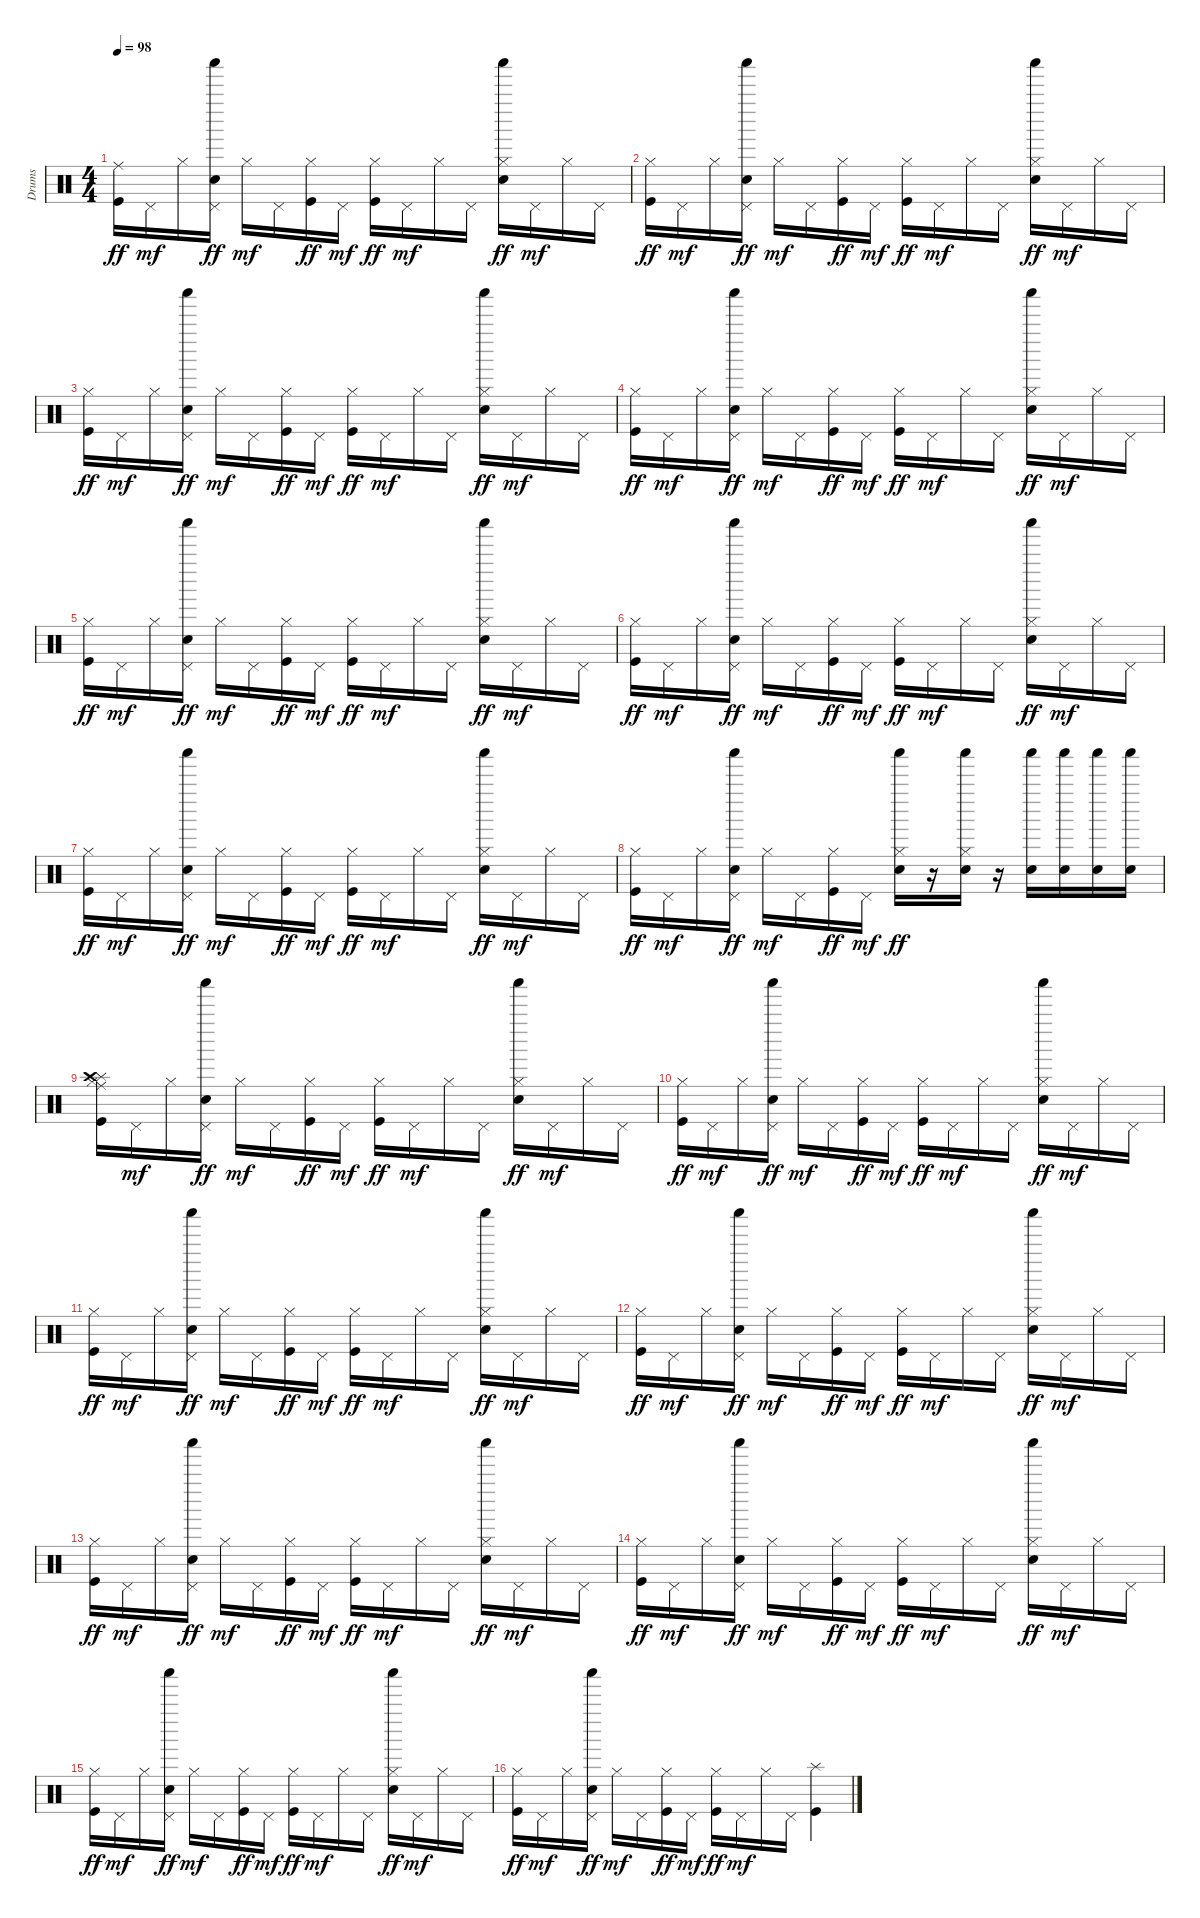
\track ("Drums" "Drums") {instrument percussion}
\staff {score}
\articulation defaults
\ts (4 4)
\tempo 98
\clef neutral
\ks c
("Kick (hit)" "Ride (middle)").16{dy ff} "Pedal Hi-Hat (hit)".16{dy mf} "Hi-Hat (closed)".16 ("Pedal Hi-Hat (hit)" "Shaker (hit)" "Electric Snare (hit)").16{dy ff} "Hi-Hat (closed)".16{dy mf} "Pedal Hi-Hat (hit)".16 ("Hi-Hat (closed)" "Kick (hit)").16{dy ff} "Pedal Hi-Hat (hit)".16{dy mf} ("Hi-Hat (closed)" "Kick (hit)").16{dy ff} "Pedal Hi-Hat (hit)".16{dy mf} "Hi-Hat (closed)".16 "Pedal Hi-Hat (hit)".16 ("Hi-Hat (closed)" "Shaker (hit)" "Electric Snare (hit)").16{dy ff} "Pedal Hi-Hat (hit)".16{dy mf} "Hi-Hat (closed)".16 "Pedal Hi-Hat (hit)".16 |
("Hi-Hat (closed)" "Kick (hit)").16{dy ff} "Pedal Hi-Hat (hit)".16{dy mf} "Hi-Hat (closed)".16 ("Pedal Hi-Hat (hit)" "Shaker (hit)" "Electric Snare (hit)").16{dy ff} "Hi-Hat (closed)".16{dy mf} "Pedal Hi-Hat (hit)".16 ("Hi-Hat (closed)" "Kick (hit)").16{dy ff} "Pedal Hi-Hat (hit)".16{dy mf} ("Hi-Hat (closed)" "Kick (hit)").16{dy ff} "Pedal Hi-Hat (hit)".16{dy mf} "Hi-Hat (closed)".16 "Pedal Hi-Hat (hit)".16 ("Hi-Hat (closed)" "Shaker (hit)" "Electric Snare (hit)").16{dy ff} "Pedal Hi-Hat (hit)".16{dy mf} "Hi-Hat (closed)".16 "Pedal Hi-Hat (hit)".16 |
("Hi-Hat (closed)" "Kick (hit)").16{dy ff} "Pedal Hi-Hat (hit)".16{dy mf} "Hi-Hat (closed)".16 ("Pedal Hi-Hat (hit)" "Shaker (hit)" "Electric Snare (hit)").16{dy ff} "Hi-Hat (closed)".16{dy mf} "Pedal Hi-Hat (hit)".16 ("Hi-Hat (closed)" "Kick (hit)").16{dy ff} "Pedal Hi-Hat (hit)".16{dy mf} ("Hi-Hat (closed)" "Kick (hit)").16{dy ff} "Pedal Hi-Hat (hit)".16{dy mf} "Hi-Hat (closed)".16 "Pedal Hi-Hat (hit)".16 ("Hi-Hat (closed)" "Shaker (hit)" "Electric Snare (hit)").16{dy ff} "Pedal Hi-Hat (hit)".16{dy mf} "Hi-Hat (closed)".16 "Pedal Hi-Hat (hit)".16 |
("Hi-Hat (closed)" "Kick (hit)").16{dy ff} "Pedal Hi-Hat (hit)".16{dy mf} "Hi-Hat (closed)".16 ("Pedal Hi-Hat (hit)" "Shaker (hit)" "Electric Snare (hit)").16{dy ff} "Hi-Hat (closed)".16{dy mf} "Pedal Hi-Hat (hit)".16 ("Hi-Hat (closed)" "Kick (hit)").16{dy ff} "Pedal Hi-Hat (hit)".16{dy mf} ("Hi-Hat (closed)" "Kick (hit)").16{dy ff} "Pedal Hi-Hat (hit)".16{dy mf} "Hi-Hat (closed)".16 "Pedal Hi-Hat (hit)".16 ("Hi-Hat (closed)" "Shaker (hit)" "Electric Snare (hit)").16{dy ff} "Pedal Hi-Hat (hit)".16{dy mf} "Hi-Hat (closed)".16 "Pedal Hi-Hat (hit)".16 |
("Hi-Hat (closed)" "Kick (hit)").16{dy ff} "Pedal Hi-Hat (hit)".16{dy mf} "Hi-Hat (closed)".16 ("Pedal Hi-Hat (hit)" "Shaker (hit)" "Electric Snare (hit)").16{dy ff} "Hi-Hat (closed)".16{dy mf} "Pedal Hi-Hat (hit)".16 ("Hi-Hat (closed)" "Kick (hit)").16{dy ff} "Pedal Hi-Hat (hit)".16{dy mf} ("Hi-Hat (closed)" "Kick (hit)").16{dy ff} "Pedal Hi-Hat (hit)".16{dy mf} "Hi-Hat (closed)".16 "Pedal Hi-Hat (hit)".16 ("Hi-Hat (closed)" "Shaker (hit)" "Electric Snare (hit)").16{dy ff} "Pedal Hi-Hat (hit)".16{dy mf} "Hi-Hat (closed)".16 "Pedal Hi-Hat (hit)".16 |
("Hi-Hat (closed)" "Kick (hit)").16{dy ff} "Pedal Hi-Hat (hit)".16{dy mf} "Hi-Hat (closed)".16 ("Pedal Hi-Hat (hit)" "Shaker (hit)" "Electric Snare (hit)").16{dy ff} "Hi-Hat (closed)".16{dy mf} "Pedal Hi-Hat (hit)".16 ("Hi-Hat (closed)" "Kick (hit)").16{dy ff} "Pedal Hi-Hat (hit)".16{dy mf} ("Hi-Hat (closed)" "Kick (hit)").16{dy ff} "Pedal Hi-Hat (hit)".16{dy mf} "Hi-Hat (closed)".16 "Pedal Hi-Hat (hit)".16 ("Hi-Hat (closed)" "Shaker (hit)" "Electric Snare (hit)").16{dy ff} "Pedal Hi-Hat (hit)".16{dy mf} "Hi-Hat (closed)".16 "Pedal Hi-Hat (hit)".16 |
("Hi-Hat (closed)" "Kick (hit)").16{dy ff} "Pedal Hi-Hat (hit)".16{dy mf} "Hi-Hat (closed)".16 ("Pedal Hi-Hat (hit)" "Shaker (hit)" "Electric Snare (hit)").16{dy ff} "Hi-Hat (closed)".16{dy mf} "Pedal Hi-Hat (hit)".16 ("Hi-Hat (closed)" "Kick (hit)").16{dy ff} "Pedal Hi-Hat (hit)".16{dy mf} ("Hi-Hat (closed)" "Kick (hit)").16{dy ff} "Pedal Hi-Hat (hit)".16{dy mf} "Hi-Hat (closed)".16 "Pedal Hi-Hat (hit)".16 ("Hi-Hat (closed)" "Shaker (hit)" "Electric Snare (hit)").16{dy ff} "Pedal Hi-Hat (hit)".16{dy mf} "Hi-Hat (closed)".16 "Pedal Hi-Hat (hit)".16 |
("Hi-Hat (closed)" "Kick (hit)").16{dy ff} "Pedal Hi-Hat (hit)".16{dy mf} "Hi-Hat (closed)".16 ("Pedal Hi-Hat (hit)" "Shaker (hit)" "Electric Snare (hit)").16{dy ff} "Hi-Hat (closed)".16{dy mf} "Pedal Hi-Hat (hit)".16 ("Hi-Hat (closed)" "Kick (hit)").16{dy ff} "Pedal Hi-Hat (hit)".16{dy mf} ("Hi-Hat (closed)" "Shaker (hit)" "Electric Snare (hit)").16{dy ff} r.16 ("Hi-Hat (closed)" "Shaker (hit)" "Electric Snare (hit)").16 r.16 ("Shaker (hit)" "Electric Snare (hit)").16 ("Shaker (hit)" "Electric Snare (hit)").16 ("Shaker (hit)" "Electric Snare (hit)").16 ("Shaker (hit)" "Electric Snare (hit)").16 |
("Hi-Hat (closed)" "Kick (hit)" "Splash (hit)" "Ride (middle)" "Crash high (hit)").16 "Pedal Hi-Hat (hit)".16{dy mf} "Hi-Hat (closed)".16 ("Pedal Hi-Hat (hit)" "Shaker (hit)" "Electric Snare (hit)").16{dy ff} "Hi-Hat (closed)".16{dy mf} "Pedal Hi-Hat (hit)".16 ("Hi-Hat (closed)" "Kick (hit)").16{dy ff} "Pedal Hi-Hat (hit)".16{dy mf} ("Hi-Hat (closed)" "Kick (hit)").16{dy ff} "Pedal Hi-Hat (hit)".16{dy mf} "Hi-Hat (closed)".16 "Pedal Hi-Hat (hit)".16 ("Hi-Hat (closed)" "Shaker (hit)" "Electric Snare (hit)").16{dy ff} "Pedal Hi-Hat (hit)".16{dy mf} "Hi-Hat (closed)".16 "Pedal Hi-Hat (hit)".16 |
("Hi-Hat (closed)" "Kick (hit)").16{dy ff} "Pedal Hi-Hat (hit)".16{dy mf} "Hi-Hat (closed)".16 ("Pedal Hi-Hat (hit)" "Shaker (hit)" "Electric Snare (hit)").16{dy ff} "Hi-Hat (closed)".16{dy mf} "Pedal Hi-Hat (hit)".16 ("Hi-Hat (closed)" "Kick (hit)").16{dy ff} "Pedal Hi-Hat (hit)".16{dy mf} ("Hi-Hat (closed)" "Kick (hit)").16{dy ff} "Pedal Hi-Hat (hit)".16{dy mf} "Hi-Hat (closed)".16 "Pedal Hi-Hat (hit)".16 ("Hi-Hat (closed)" "Shaker (hit)" "Electric Snare (hit)").16{dy ff} "Pedal Hi-Hat (hit)".16{dy mf} "Hi-Hat (closed)".16 "Pedal Hi-Hat (hit)".16 |
("Hi-Hat (closed)" "Kick (hit)").16{dy ff} "Pedal Hi-Hat (hit)".16{dy mf} "Hi-Hat (closed)".16 ("Pedal Hi-Hat (hit)" "Shaker (hit)" "Electric Snare (hit)").16{dy ff} "Hi-Hat (closed)".16{dy mf} "Pedal Hi-Hat (hit)".16 ("Hi-Hat (closed)" "Kick (hit)").16{dy ff} "Pedal Hi-Hat (hit)".16{dy mf} ("Hi-Hat (closed)" "Kick (hit)").16{dy ff} "Pedal Hi-Hat (hit)".16{dy mf} "Hi-Hat (closed)".16 "Pedal Hi-Hat (hit)".16 ("Hi-Hat (closed)" "Shaker (hit)" "Electric Snare (hit)").16{dy ff} "Pedal Hi-Hat (hit)".16{dy mf} "Hi-Hat (closed)".16 "Pedal Hi-Hat (hit)".16 |
("Hi-Hat (closed)" "Kick (hit)").16{dy ff} "Pedal Hi-Hat (hit)".16{dy mf} "Hi-Hat (closed)".16 ("Pedal Hi-Hat (hit)" "Shaker (hit)" "Electric Snare (hit)").16{dy ff} "Hi-Hat (closed)".16{dy mf} "Pedal Hi-Hat (hit)".16 ("Hi-Hat (closed)" "Kick (hit)").16{dy ff} "Pedal Hi-Hat (hit)".16{dy mf} ("Hi-Hat (closed)" "Kick (hit)").16{dy ff} "Pedal Hi-Hat (hit)".16{dy mf} "Hi-Hat (closed)".16 "Pedal Hi-Hat (hit)".16 ("Hi-Hat (closed)" "Shaker (hit)" "Electric Snare (hit)").16{dy ff} "Pedal Hi-Hat (hit)".16{dy mf} "Hi-Hat (closed)".16 "Pedal Hi-Hat (hit)".16 |
("Hi-Hat (closed)" "Kick (hit)").16{dy ff} "Pedal Hi-Hat (hit)".16{dy mf} "Hi-Hat (closed)".16 ("Pedal Hi-Hat (hit)" "Shaker (hit)" "Electric Snare (hit)").16{dy ff} "Hi-Hat (closed)".16{dy mf} "Pedal Hi-Hat (hit)".16 ("Hi-Hat (closed)" "Kick (hit)").16{dy ff} "Pedal Hi-Hat (hit)".16{dy mf} ("Hi-Hat (closed)" "Kick (hit)").16{dy ff} "Pedal Hi-Hat (hit)".16{dy mf} "Hi-Hat (closed)".16 "Pedal Hi-Hat (hit)".16 ("Hi-Hat (closed)" "Shaker (hit)" "Electric Snare (hit)").16{dy ff} "Pedal Hi-Hat (hit)".16{dy mf} "Hi-Hat (closed)".16 "Pedal Hi-Hat (hit)".16 |
("Hi-Hat (closed)" "Kick (hit)").16{dy ff} "Pedal Hi-Hat (hit)".16{dy mf} "Hi-Hat (closed)".16 ("Pedal Hi-Hat (hit)" "Shaker (hit)" "Electric Snare (hit)").16{dy ff} "Hi-Hat (closed)".16{dy mf} "Pedal Hi-Hat (hit)".16 ("Hi-Hat (closed)" "Kick (hit)").16{dy ff} "Pedal Hi-Hat (hit)".16{dy mf} ("Hi-Hat (closed)" "Kick (hit)").16{dy ff} "Pedal Hi-Hat (hit)".16{dy mf} "Hi-Hat (closed)".16 "Pedal Hi-Hat (hit)".16 ("Hi-Hat (closed)" "Shaker (hit)" "Electric Snare (hit)").16{dy ff} "Pedal Hi-Hat (hit)".16{dy mf} "Hi-Hat (closed)".16 "Pedal Hi-Hat (hit)".16 |
("Hi-Hat (closed)" "Kick (hit)").16{dy ff} "Pedal Hi-Hat (hit)".16{dy mf} "Hi-Hat (closed)".16 ("Pedal Hi-Hat (hit)" "Shaker (hit)" "Electric Snare (hit)").16{dy ff} "Hi-Hat (closed)".16{dy mf} "Pedal Hi-Hat (hit)".16 ("Hi-Hat (closed)" "Kick (hit)").16{dy ff} "Pedal Hi-Hat (hit)".16{dy mf} ("Hi-Hat (closed)" "Kick (hit)").16{dy ff} "Pedal Hi-Hat (hit)".16{dy mf} "Hi-Hat (closed)".16 "Pedal Hi-Hat (hit)".16 ("Hi-Hat (closed)" "Shaker (hit)" "Electric Snare (hit)").16{dy ff} "Pedal Hi-Hat (hit)".16{dy mf} "Hi-Hat (closed)".16 "Pedal Hi-Hat (hit)".16 |
("Hi-Hat (closed)" "Kick (hit)").16{dy ff} "Pedal Hi-Hat (hit)".16{dy mf} "Hi-Hat (closed)".16 ("Pedal Hi-Hat (hit)" "Shaker (hit)" "Electric Snare (hit)").16{dy ff} "Hi-Hat (closed)".16{dy mf} "Pedal Hi-Hat (hit)".16 ("Hi-Hat (closed)" "Kick (hit)").16{dy ff} "Pedal Hi-Hat (hit)".16{dy mf} ("Hi-Hat (closed)" "Kick (hit)").16{dy ff} "Pedal Hi-Hat (hit)".16{dy mf} "Hi-Hat (closed)".16 "Pedal Hi-Hat (hit)".16 ("Splash (hit)" "Kick (hit)").4
